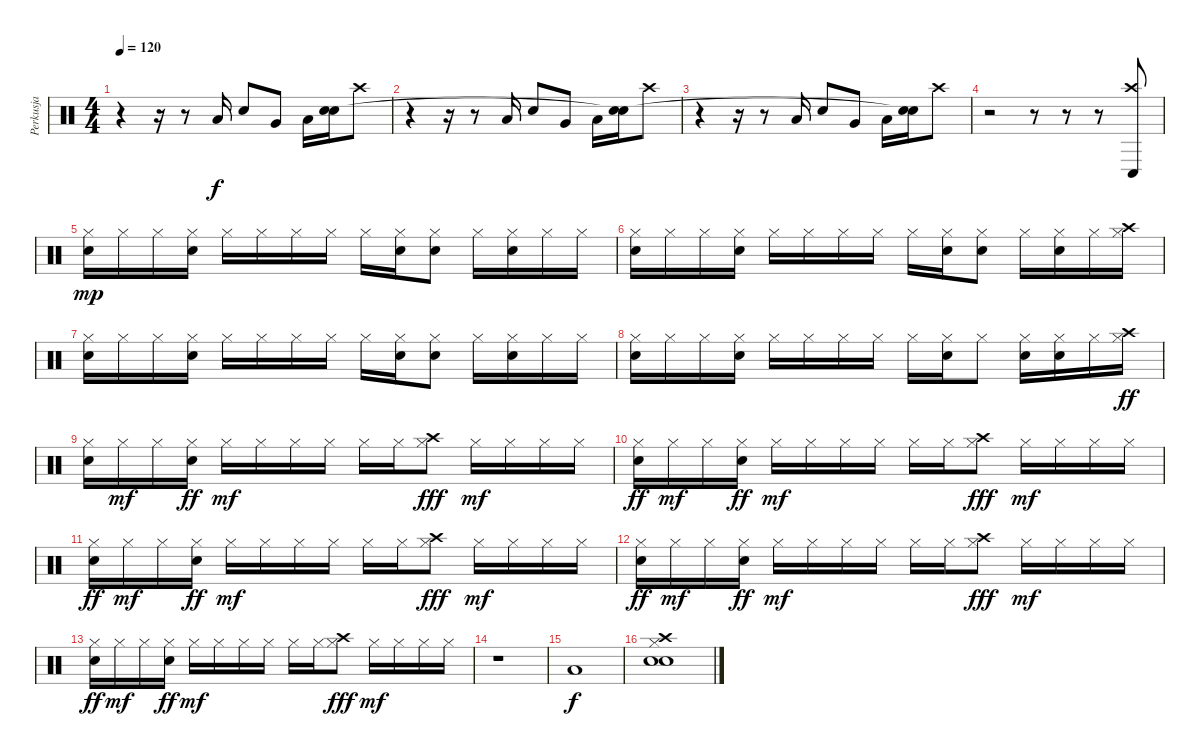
\track ("Perkusja" "Perkusja") {instrument percussion}
\staff {score}
\articulation defaults
\ts (4 4)
\tempo 120
\clef neutral
\ks c
r.4{dy f} r.16 r.8 "Low Tom (hit)".16 "Snare (hit) 2".8 "Very Low Tom (hit)".8 "Low Tom (hit)".16 ("Snare (hit) 2" "Snare (hit)"{t}).16 "Crash high (hit)".8 |
r.4 r.16 r.8 "Low Tom (hit)".16 "Snare (hit) 2".8 "Very Low Tom (hit)".8 "Low Tom (hit)".16 ("Snare (hit) 2" "Snare (hit)"{t}).16 "Crash high (hit)".8 |
r.4 r.16 r.8 "Low Tom (hit)".16 "Snare (hit) 2".8 "Very Low Tom (hit)".8 "Low Tom (hit)".16 ("Snare (hit) 2" "Snare (hit)"{t}).16 "Crash high (hit)".8 |
r.2 r.8 r.8 r.8 ("Conga low (hit)" "Crash high (hit)").8 |
("Hi-Hat (closed)" "Snare (hit) 2").16{dy mp} "Hi-Hat (closed)".16 "Hi-Hat (closed)".16 ("Hi-Hat (closed)" "Snare (hit) 2").16 "Hi-Hat (closed)".16 "Hi-Hat (closed)".16 "Hi-Hat (closed)".16 "Hi-Hat (closed)".16 "Hi-Hat (closed)".16 ("Hi-Hat (closed)" "Snare (hit) 2").16 ("Hi-Hat (closed)" "Snare (hit) 2").8 "Hi-Hat (closed)".16 ("Hi-Hat (closed)" "Snare (hit) 2").16 "Hi-Hat (closed)".16 "Hi-Hat (closed)".16 |
("Hi-Hat (closed)" "Snare (hit) 2").16 "Hi-Hat (closed)".16 "Hi-Hat (closed)".16 ("Hi-Hat (closed)" "Snare (hit) 2").16 "Hi-Hat (closed)".16 "Hi-Hat (closed)".16 "Hi-Hat (closed)".16 "Hi-Hat (closed)".16 "Hi-Hat (closed)".16 ("Hi-Hat (closed)" "Snare (hit) 2").16 ("Hi-Hat (closed)" "Snare (hit) 2").8 "Hi-Hat (closed)".16 ("Hi-Hat (closed)" "Snare (hit) 2").16 "Hi-Hat (closed)".16 ("Hi-Hat (closed)" "Crash high (hit)").16 |
("Hi-Hat (closed)" "Snare (hit) 2").16 "Hi-Hat (closed)".16 "Hi-Hat (closed)".16 ("Hi-Hat (closed)" "Snare (hit) 2").16 "Hi-Hat (closed)".16 "Hi-Hat (closed)".16 "Hi-Hat (closed)".16 "Hi-Hat (closed)".16 "Hi-Hat (closed)".16 ("Hi-Hat (closed)" "Snare (hit) 2").16 ("Hi-Hat (closed)" "Snare (hit) 2").8 "Hi-Hat (closed)".16 ("Hi-Hat (closed)" "Snare (hit) 2").16 "Hi-Hat (closed)".16 "Hi-Hat (closed)".16 |
("Hi-Hat (closed)" "Snare (hit) 2").16 "Hi-Hat (closed)".16 "Hi-Hat (closed)".16 ("Hi-Hat (closed)" "Snare (hit) 2").16 "Hi-Hat (closed)".16 "Hi-Hat (closed)".16 "Hi-Hat (closed)".16 "Hi-Hat (closed)".16 "Hi-Hat (closed)".16 ("Hi-Hat (closed)" "Snare (hit) 2").16 "Hi-Hat (closed)".8 ("Hi-Hat (closed)" "Snare (hit) 2").16 ("Hi-Hat (closed)" "Snare (hit) 2").16 "Hi-Hat (closed)".16 ("Hi-Hat (closed)" "Crash high (hit)").16{dy ff} |
("Hi-Hat (closed)" "Snare (hit) 2").16 "Hi-Hat (closed)".16{dy mf} "Hi-Hat (closed)".16 ("Hi-Hat (closed)" "Snare (hit) 2").16{dy ff} "Hi-Hat (closed)".16{dy mf} "Hi-Hat (closed)".16 "Hi-Hat (closed)".16 "Hi-Hat (closed)".16 "Hi-Hat (closed)".16 "Hi-Hat (closed)".16 ("Hi-Hat (closed)" "Crash high (hit)").8{dy fff} "Hi-Hat (closed)".16{dy mf} "Hi-Hat (closed)".16 "Hi-Hat (closed)".16 "Hi-Hat (closed)".16 |
("Hi-Hat (closed)" "Snare (hit) 2").16{dy ff} "Hi-Hat (closed)".16{dy mf} "Hi-Hat (closed)".16 ("Hi-Hat (closed)" "Snare (hit) 2").16{dy ff} "Hi-Hat (closed)".16{dy mf} "Hi-Hat (closed)".16 "Hi-Hat (closed)".16 "Hi-Hat (closed)".16 "Hi-Hat (closed)".16 "Hi-Hat (closed)".16 ("Hi-Hat (closed)" "Crash high (hit)").8{dy fff} "Hi-Hat (closed)".16{dy mf} "Hi-Hat (closed)".16 "Hi-Hat (closed)".16 "Hi-Hat (closed)".16 |
("Hi-Hat (closed)" "Snare (hit) 2").16{dy ff} "Hi-Hat (closed)".16{dy mf} "Hi-Hat (closed)".16 ("Hi-Hat (closed)" "Snare (hit) 2").16{dy ff} "Hi-Hat (closed)".16{dy mf} "Hi-Hat (closed)".16 "Hi-Hat (closed)".16 "Hi-Hat (closed)".16 "Hi-Hat (closed)".16 "Hi-Hat (closed)".16 ("Hi-Hat (closed)" "Crash high (hit)").8{dy fff} "Hi-Hat (closed)".16{dy mf} "Hi-Hat (closed)".16 "Hi-Hat (closed)".16 "Hi-Hat (closed)".16 |
("Hi-Hat (closed)" "Snare (hit) 2").16{dy ff} "Hi-Hat (closed)".16{dy mf} "Hi-Hat (closed)".16 ("Hi-Hat (closed)" "Snare (hit) 2").16{dy ff} "Hi-Hat (closed)".16{dy mf} "Hi-Hat (closed)".16 "Hi-Hat (closed)".16 "Hi-Hat (closed)".16 "Hi-Hat (closed)".16 "Hi-Hat (closed)".16 ("Hi-Hat (closed)" "Crash high (hit)").8{dy fff} "Hi-Hat (closed)".16{dy mf} "Hi-Hat (closed)".16 "Hi-Hat (closed)".16 "Hi-Hat (closed)".16 |
("Hi-Hat (closed)" "Snare (hit) 2").16{dy ff} "Hi-Hat (closed)".16{dy mf} "Hi-Hat (closed)".16 ("Hi-Hat (closed)" "Snare (hit) 2").16{dy ff} "Hi-Hat (closed)".16{dy mf} "Hi-Hat (closed)".16 "Hi-Hat (closed)".16 "Hi-Hat (closed)".16 "Hi-Hat (closed)".16 "Hi-Hat (closed)".16 ("Hi-Hat (closed)" "Crash high (hit)").8{dy fff} "Hi-Hat (closed)".16{dy mf} "Hi-Hat (closed)".16 "Hi-Hat (closed)".16 "Hi-Hat (closed)".16 |
r.1 |
"Low Tom (hit)".1{dy f} |
("Hi-Hat (closed)" "Snare (hit) 2" "Crash high (hit)" "Electric Snare (hit)").1
